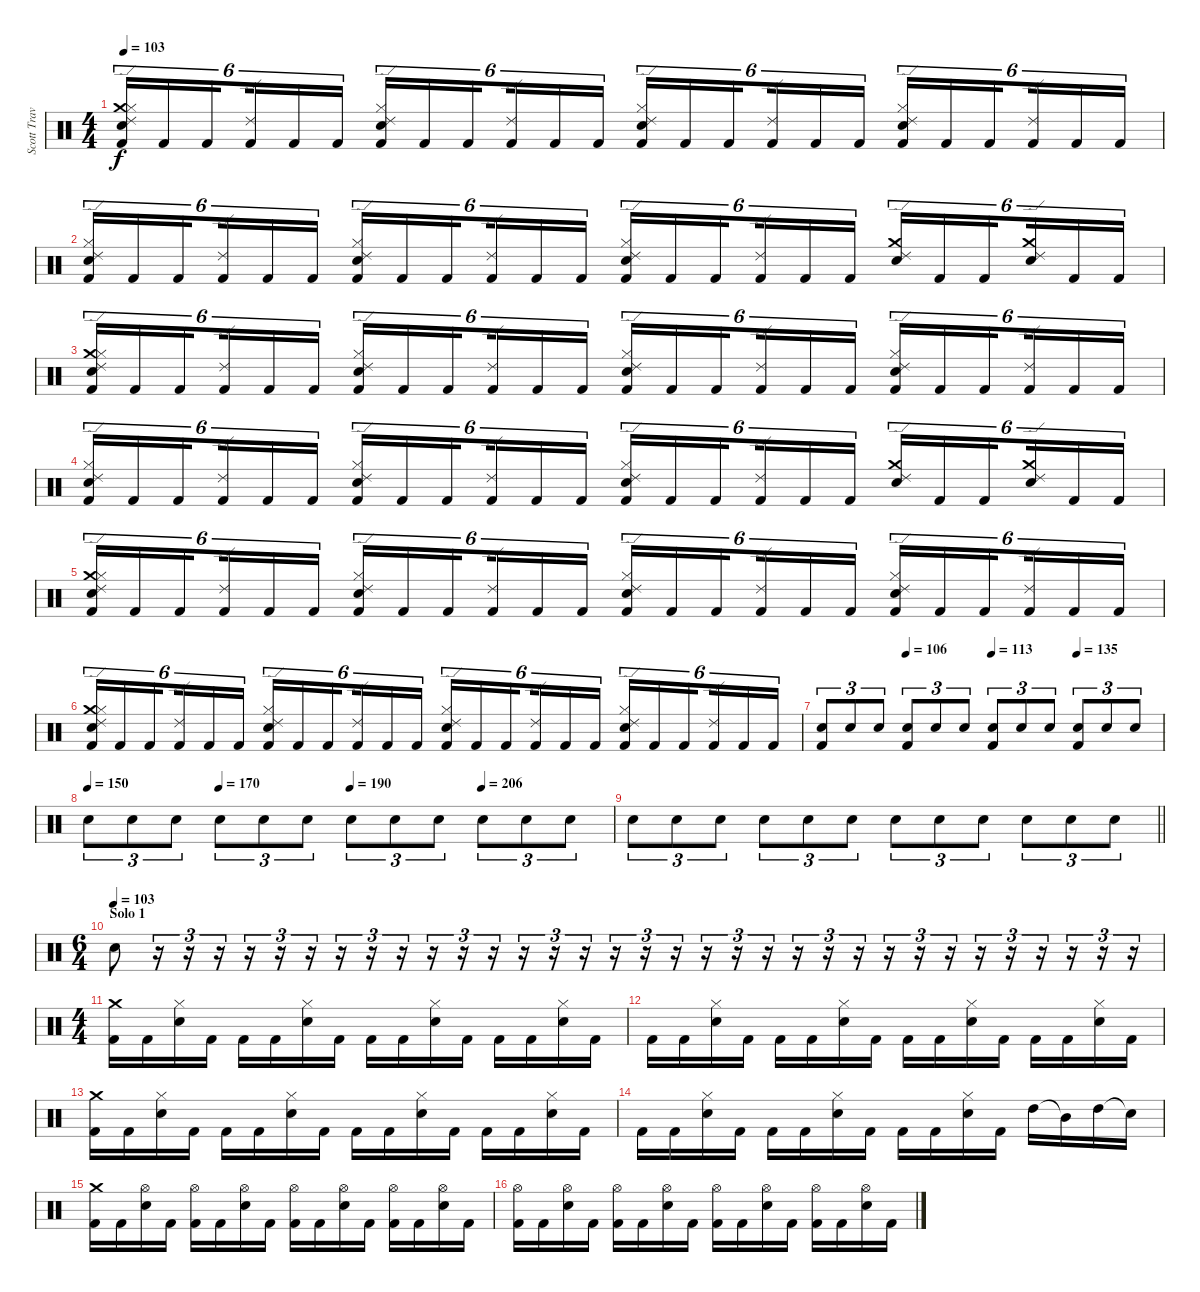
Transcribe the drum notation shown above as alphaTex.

\track ("Scott Travis" "Scott Trav") {instrument percussion}
\staff {score}
\articulation defaults
\ts (4 4)
\tempo 103
\clef neutral
\ks c
("Ride (edge) 2" "Crash medium (hit)" "Hi-Hat (closed)" "Snare (hit) 2" "Kick (hit) 2").16{tu (6 4) dy f} "Kick (hit) 2".16{tu (6 4)} "Kick (hit) 2".16{tu (6 4) beam splitsecondary} ("Ride (edge) 2" "Kick (hit) 2").16{tu (6 4)} "Kick (hit) 2".16{tu (6 4)} "Kick (hit) 2".16{tu (6 4)} ("Ride (edge) 2" "Hi-Hat (closed)" "Snare (hit) 2" "Kick (hit) 2").16{tu (6 4)} "Kick (hit) 2".16{tu (6 4)} "Kick (hit) 2".16{tu (6 4) beam splitsecondary} ("Ride (edge) 2" "Kick (hit) 2").16{tu (6 4)} "Kick (hit) 2".16{tu (6 4)} "Kick (hit) 2".16{tu (6 4)} ("Ride (edge) 2" "Hi-Hat (closed)" "Snare (hit) 2" "Kick (hit) 2").16{tu (6 4)} "Kick (hit) 2".16{tu (6 4)} "Kick (hit) 2".16{tu (6 4) beam splitsecondary} ("Ride (edge) 2" "Kick (hit) 2").16{tu (6 4)} "Kick (hit) 2".16{tu (6 4)} "Kick (hit) 2".16{tu (6 4)} ("Ride (edge) 2" "Hi-Hat (closed)" "Snare (hit) 2" "Kick (hit) 2").16{tu (6 4)} "Kick (hit) 2".16{tu (6 4)} "Kick (hit) 2".16{tu (6 4) beam splitsecondary} ("Ride (edge) 2" "Kick (hit) 2").16{tu (6 4)} "Kick (hit) 2".16{tu (6 4)} "Kick (hit) 2".16{tu (6 4)} |
("Ride (edge) 2" "Hi-Hat (closed)" "Snare (hit) 2" "Kick (hit) 2").16{tu (6 4)} "Kick (hit) 2".16{tu (6 4)} "Kick (hit) 2".16{tu (6 4) beam splitsecondary} ("Ride (edge) 2" "Kick (hit) 2").16{tu (6 4)} "Kick (hit) 2".16{tu (6 4)} "Kick (hit) 2".16{tu (6 4)} ("Ride (edge) 2" "Hi-Hat (closed)" "Snare (hit) 2" "Kick (hit) 2").16{tu (6 4)} "Kick (hit) 2".16{tu (6 4)} "Kick (hit) 2".16{tu (6 4) beam splitsecondary} ("Ride (edge) 2" "Kick (hit) 2").16{tu (6 4)} "Kick (hit) 2".16{tu (6 4)} "Kick (hit) 2".16{tu (6 4)} ("Ride (edge) 2" "Hi-Hat (closed)" "Snare (hit) 2" "Kick (hit) 2").16{tu (6 4)} "Kick (hit) 2".16{tu (6 4)} "Kick (hit) 2".16{tu (6 4) beam splitsecondary} ("Ride (edge) 2" "Kick (hit) 2").16{tu (6 4)} "Kick (hit) 2".16{tu (6 4)} "Kick (hit) 2".16{tu (6 4)} ("Ride (edge) 2" "Crash medium (hit)" "Snare (hit) 2").16{tu (6 4)} "Kick (hit) 2".16{tu (6 4)} "Kick (hit) 2".16{tu (6 4) beam splitsecondary} ("Ride (edge) 2" "Crash medium (hit)" "Snare (hit) 2").16{tu (6 4)} "Kick (hit) 2".16{tu (6 4)} "Kick (hit) 2".16{tu (6 4)} |
("Ride (edge) 2" "Crash medium (hit)" "Hi-Hat (closed)" "Snare (hit) 2" "Kick (hit) 2").16{tu (6 4)} "Kick (hit) 2".16{tu (6 4)} "Kick (hit) 2".16{tu (6 4) beam splitsecondary} ("Ride (edge) 2" "Kick (hit) 2").16{tu (6 4)} "Kick (hit) 2".16{tu (6 4)} "Kick (hit) 2".16{tu (6 4)} ("Ride (edge) 2" "Hi-Hat (closed)" "Snare (hit) 2" "Kick (hit) 2").16{tu (6 4)} "Kick (hit) 2".16{tu (6 4)} "Kick (hit) 2".16{tu (6 4) beam splitsecondary} ("Ride (edge) 2" "Kick (hit) 2").16{tu (6 4)} "Kick (hit) 2".16{tu (6 4)} "Kick (hit) 2".16{tu (6 4)} ("Ride (edge) 2" "Hi-Hat (closed)" "Snare (hit) 2" "Kick (hit) 2").16{tu (6 4)} "Kick (hit) 2".16{tu (6 4)} "Kick (hit) 2".16{tu (6 4) beam splitsecondary} ("Ride (edge) 2" "Kick (hit) 2").16{tu (6 4)} "Kick (hit) 2".16{tu (6 4)} "Kick (hit) 2".16{tu (6 4)} ("Ride (edge) 2" "Hi-Hat (closed)" "Snare (hit) 2" "Kick (hit) 2").16{tu (6 4)} "Kick (hit) 2".16{tu (6 4)} "Kick (hit) 2".16{tu (6 4) beam splitsecondary} ("Ride (edge) 2" "Kick (hit) 2").16{tu (6 4)} "Kick (hit) 2".16{tu (6 4)} "Kick (hit) 2".16{tu (6 4)} |
("Ride (edge) 2" "Hi-Hat (closed)" "Snare (hit) 2" "Kick (hit) 2").16{tu (6 4)} "Kick (hit) 2".16{tu (6 4)} "Kick (hit) 2".16{tu (6 4) beam splitsecondary} ("Ride (edge) 2" "Kick (hit) 2").16{tu (6 4)} "Kick (hit) 2".16{tu (6 4)} "Kick (hit) 2".16{tu (6 4)} ("Ride (edge) 2" "Hi-Hat (closed)" "Snare (hit) 2" "Kick (hit) 2").16{tu (6 4)} "Kick (hit) 2".16{tu (6 4)} "Kick (hit) 2".16{tu (6 4) beam splitsecondary} ("Ride (edge) 2" "Kick (hit) 2").16{tu (6 4)} "Kick (hit) 2".16{tu (6 4)} "Kick (hit) 2".16{tu (6 4)} ("Ride (edge) 2" "Hi-Hat (closed)" "Snare (hit) 2" "Kick (hit) 2").16{tu (6 4)} "Kick (hit) 2".16{tu (6 4)} "Kick (hit) 2".16{tu (6 4) beam splitsecondary} ("Ride (edge) 2" "Kick (hit) 2").16{tu (6 4)} "Kick (hit) 2".16{tu (6 4)} "Kick (hit) 2".16{tu (6 4)} ("Ride (edge) 2" "Crash medium (hit)" "Snare (hit) 2").16{tu (6 4)} "Kick (hit) 2".16{tu (6 4)} "Kick (hit) 2".16{tu (6 4) beam splitsecondary} ("Ride (edge) 2" "Crash medium (hit)" "Snare (hit) 2").16{tu (6 4)} "Kick (hit) 2".16{tu (6 4)} "Kick (hit) 2".16{tu (6 4)} |
("Ride (edge) 2" "Crash medium (hit)" "Hi-Hat (closed)" "Snare (hit) 2" "Kick (hit) 2").16{tu (6 4)} "Kick (hit) 2".16{tu (6 4)} "Kick (hit) 2".16{tu (6 4) beam splitsecondary} ("Ride (edge) 2" "Kick (hit) 2").16{tu (6 4)} "Kick (hit) 2".16{tu (6 4)} "Kick (hit) 2".16{tu (6 4)} ("Ride (edge) 2" "Hi-Hat (closed)" "Snare (hit) 2" "Kick (hit) 2").16{tu (6 4)} "Kick (hit) 2".16{tu (6 4)} "Kick (hit) 2".16{tu (6 4) beam splitsecondary} ("Ride (edge) 2" "Kick (hit) 2").16{tu (6 4)} "Kick (hit) 2".16{tu (6 4)} "Kick (hit) 2".16{tu (6 4)} ("Ride (edge) 2" "Hi-Hat (closed)" "Snare (hit) 2" "Kick (hit) 2").16{tu (6 4)} "Kick (hit) 2".16{tu (6 4)} "Kick (hit) 2".16{tu (6 4) beam splitsecondary} ("Ride (edge) 2" "Kick (hit) 2").16{tu (6 4)} "Kick (hit) 2".16{tu (6 4)} "Kick (hit) 2".16{tu (6 4)} ("Ride (edge) 2" "Hi-Hat (closed)" "Snare (hit) 2" "Kick (hit) 2").16{tu (6 4)} "Kick (hit) 2".16{tu (6 4)} "Kick (hit) 2".16{tu (6 4) beam splitsecondary} ("Ride (edge) 2" "Kick (hit) 2").16{tu (6 4)} "Kick (hit) 2".16{tu (6 4)} "Kick (hit) 2".16{tu (6 4)} |
("Ride (edge) 2" "Crash medium (hit)" "Hi-Hat (closed)" "Snare (hit) 2" "Kick (hit) 2").16{tu (6 4)} "Kick (hit) 2".16{tu (6 4)} "Kick (hit) 2".16{tu (6 4) beam splitsecondary} ("Ride (edge) 2" "Kick (hit) 2").16{tu (6 4)} "Kick (hit) 2".16{tu (6 4)} "Kick (hit) 2".16{tu (6 4)} ("Ride (edge) 2" "Hi-Hat (closed)" "Snare (hit) 2" "Kick (hit) 2").16{tu (6 4)} "Kick (hit) 2".16{tu (6 4)} "Kick (hit) 2".16{tu (6 4) beam splitsecondary} ("Ride (edge) 2" "Kick (hit) 2").16{tu (6 4)} "Kick (hit) 2".16{tu (6 4)} "Kick (hit) 2".16{tu (6 4)} ("Ride (edge) 2" "Hi-Hat (closed)" "Snare (hit) 2" "Kick (hit) 2").16{tu (6 4)} "Kick (hit) 2".16{tu (6 4)} "Kick (hit) 2".16{tu (6 4) beam splitsecondary} ("Ride (edge) 2" "Kick (hit) 2").16{tu (6 4)} "Kick (hit) 2".16{tu (6 4)} "Kick (hit) 2".16{tu (6 4)} ("Ride (edge) 2" "Hi-Hat (closed)" "Snare (hit) 2" "Kick (hit) 2").16{tu (6 4)} "Kick (hit) 2".16{tu (6 4)} "Kick (hit) 2".16{tu (6 4) beam splitsecondary} ("Ride (edge) 2" "Kick (hit) 2").16{tu (6 4)} "Kick (hit) 2".16{tu (6 4)} "Kick (hit) 2".16{tu (6 4)} |
\tempo (106 0.25)
\tempo (113 0.5)
\tempo (135 0.75)
("Kick (hit) 2" "Snare (hit) 2").8{tu (3 2)} "Snare (hit) 2".8{tu (3 2)} "Snare (hit) 2".8{tu (3 2)} ("Kick (hit) 2" "Snare (hit) 2").8{tu (3 2)} "Snare (hit) 2".8{tu (3 2)} "Snare (hit) 2".8{tu (3 2)} ("Kick (hit) 2" "Snare (hit) 2").8{tu (3 2)} "Snare (hit) 2".8{tu (3 2)} "Snare (hit) 2".8{tu (3 2)} ("Kick (hit) 2" "Snare (hit) 2").8{tu (3 2)} "Snare (hit) 2".8{tu (3 2)} "Snare (hit) 2".8{tu (3 2)} |
\tempo 150
\tempo (170 0.25)
\tempo (190 0.5)
\tempo (206 0.75)
"Snare (hit) 2".8{tu (3 2)} "Snare (hit) 2".8{tu (3 2)} "Snare (hit) 2".8{tu (3 2)} "Snare (hit) 2".8{tu (3 2)} "Snare (hit) 2".8{tu (3 2)} "Snare (hit) 2".8{tu (3 2)} "Snare (hit) 2".8{tu (3 2)} "Snare (hit) 2".8{tu (3 2)} "Snare (hit) 2".8{tu (3 2)} "Snare (hit) 2".8{tu (3 2)} "Snare (hit) 2".8{tu (3 2)} "Snare (hit) 2".8{tu (3 2)} |
\barLineRight lightlight "Snare (hit) 2".8{tu (3 2)} "Snare (hit) 2".8{tu (3 2)} "Snare (hit) 2".8{tu (3 2)} "Snare (hit) 2".8{tu (3 2)} "Snare (hit) 2".8{tu (3 2)} "Snare (hit) 2".8{tu (3 2)} "Snare (hit) 2".8{tu (3 2)} "Snare (hit) 2".8{tu (3 2)} "Snare (hit) 2".8{tu (3 2)} "Snare (hit) 2".8{tu (3 2)} "Snare (hit) 2".8{tu (3 2)} "Snare (hit) 2".8{tu (3 2)}
|
\ts (6 4)
\section ("" "Solo 1")
\tempo (103)
"Snare (hit) 2".8 r.16{tu (3 2)} r.16{tu (3 2)} r.16{tu (3 2)} r.16{tu (3 2)} r.16{tu (3 2)} r.16{tu (3 2)} r.16{tu (3 2)} r.16{tu (3 2)} r.16{tu (3 2)} r.16{tu (3 2)} r.16{tu (3 2)} r.16{tu (3 2)} r.16{tu (3 2)} r.16{tu (3 2)} r.16{tu (3 2)} r.16{tu (3 2)} r.16{tu (3 2)} r.16{tu (3 2)} r.16{tu (3 2)} r.16{tu (3 2)} r.16{tu (3 2)} r.16{tu (3 2)} r.16{tu (3 2)} r.16{tu (3 2)} r.16{tu (3 2)} r.16{tu (3 2)} r.16{tu (3 2)} r.16{tu (3 2)} r.16{tu (3 2)} r.16{tu (3 2)} r.16{tu (3 2)} r.16{tu (3 2)} r.16{tu (3 2)} |
\ts (4 4)
("Crash medium (hit)" "Kick (hit) 2").16 "Kick (hit) 2".16 ("Hi-Hat (closed)" "Snare (hit) 2").16 "Kick (hit) 2".16 "Kick (hit) 2".16 "Kick (hit) 2".16 ("Hi-Hat (closed)" "Snare (hit) 2").16 "Kick (hit) 2".16 "Kick (hit) 2".16 "Kick (hit) 2".16 ("Hi-Hat (closed)" "Snare (hit) 2").16 "Kick (hit) 2".16 "Kick (hit) 2".16 "Kick (hit) 2".16 ("Hi-Hat (closed)" "Snare (hit) 2").16 "Kick (hit) 2".16 |
"Kick (hit) 2".16 "Kick (hit) 2".16 ("Hi-Hat (closed)" "Snare (hit) 2").16 "Kick (hit) 2".16 "Kick (hit) 2".16 "Kick (hit) 2".16 ("Hi-Hat (closed)" "Snare (hit) 2").16 "Kick (hit) 2".16 "Kick (hit) 2".16 "Kick (hit) 2".16 ("Hi-Hat (closed)" "Snare (hit) 2").16 "Kick (hit) 2".16 "Kick (hit) 2".16 "Kick (hit) 2".16 ("Hi-Hat (closed)" "Snare (hit) 2").16 "Kick (hit) 2".16 |
("Crash medium (hit)" "Kick (hit) 2").16 "Kick (hit) 2".16 ("Hi-Hat (closed)" "Snare (hit) 2").16 "Kick (hit) 2".16 "Kick (hit) 2".16 "Kick (hit) 2".16 ("Hi-Hat (closed)" "Snare (hit) 2").16 "Kick (hit) 2".16 "Kick (hit) 2".16 "Kick (hit) 2".16 ("Hi-Hat (closed)" "Snare (hit) 2").16 "Kick (hit) 2".16 "Kick (hit) 2".16 "Kick (hit) 2".16 ("Hi-Hat (closed)" "Snare (hit) 2").16 "Kick (hit) 2".16 |
"Kick (hit) 2".16 "Kick (hit) 2".16 ("Hi-Hat (closed)" "Snare (hit) 2").16 "Kick (hit) 2".16 "Kick (hit) 2".16 "Kick (hit) 2".16 ("Hi-Hat (closed)" "Snare (hit) 2").16 "Kick (hit) 2".16 "Kick (hit) 2".16 "Kick (hit) 2".16 ("Hi-Hat (closed)" "Snare (hit) 2").16 "Kick (hit) 2".16 "High Tom (hit)".16 "Mid Tom (hit)"{t}.16 "High Tom (hit)".16 "Snare (hit)"{t}.16 |
("Crash medium (hit)" "Kick (hit) 2").16 "Kick (hit) 2".16 ("Hi-Hat (open)" "Snare (hit) 2").16 "Kick (hit) 2".16 ("Hi-Hat (open)" "Kick (hit) 2").16 "Kick (hit) 2".16 ("Hi-Hat (open)" "Snare (hit) 2").16 "Kick (hit) 2".16 ("Hi-Hat (open)" "Kick (hit) 2").16 "Kick (hit) 2".16 ("Hi-Hat (open)" "Snare (hit) 2").16 "Kick (hit) 2".16 ("Hi-Hat (open)" "Kick (hit) 2").16 "Kick (hit) 2".16 ("Hi-Hat (open)" "Snare (hit) 2").16 "Kick (hit) 2".16 |
("Hi-Hat (open)" "Kick (hit) 2").16 "Kick (hit) 2".16 ("Hi-Hat (open)" "Snare (hit) 2").16 "Kick (hit) 2".16 ("Hi-Hat (open)" "Kick (hit) 2").16 "Kick (hit) 2".16 ("Hi-Hat (open)" "Snare (hit) 2").16 "Kick (hit) 2".16 ("Hi-Hat (open)" "Kick (hit) 2").16 "Kick (hit) 2".16 ("Hi-Hat (open)" "Snare (hit) 2").16 "Kick (hit) 2".16 ("Hi-Hat (open)" "Kick (hit) 2").16 "Kick (hit) 2".16 ("Hi-Hat (open)" "Snare (hit) 2").16 "Kick (hit) 2".16
